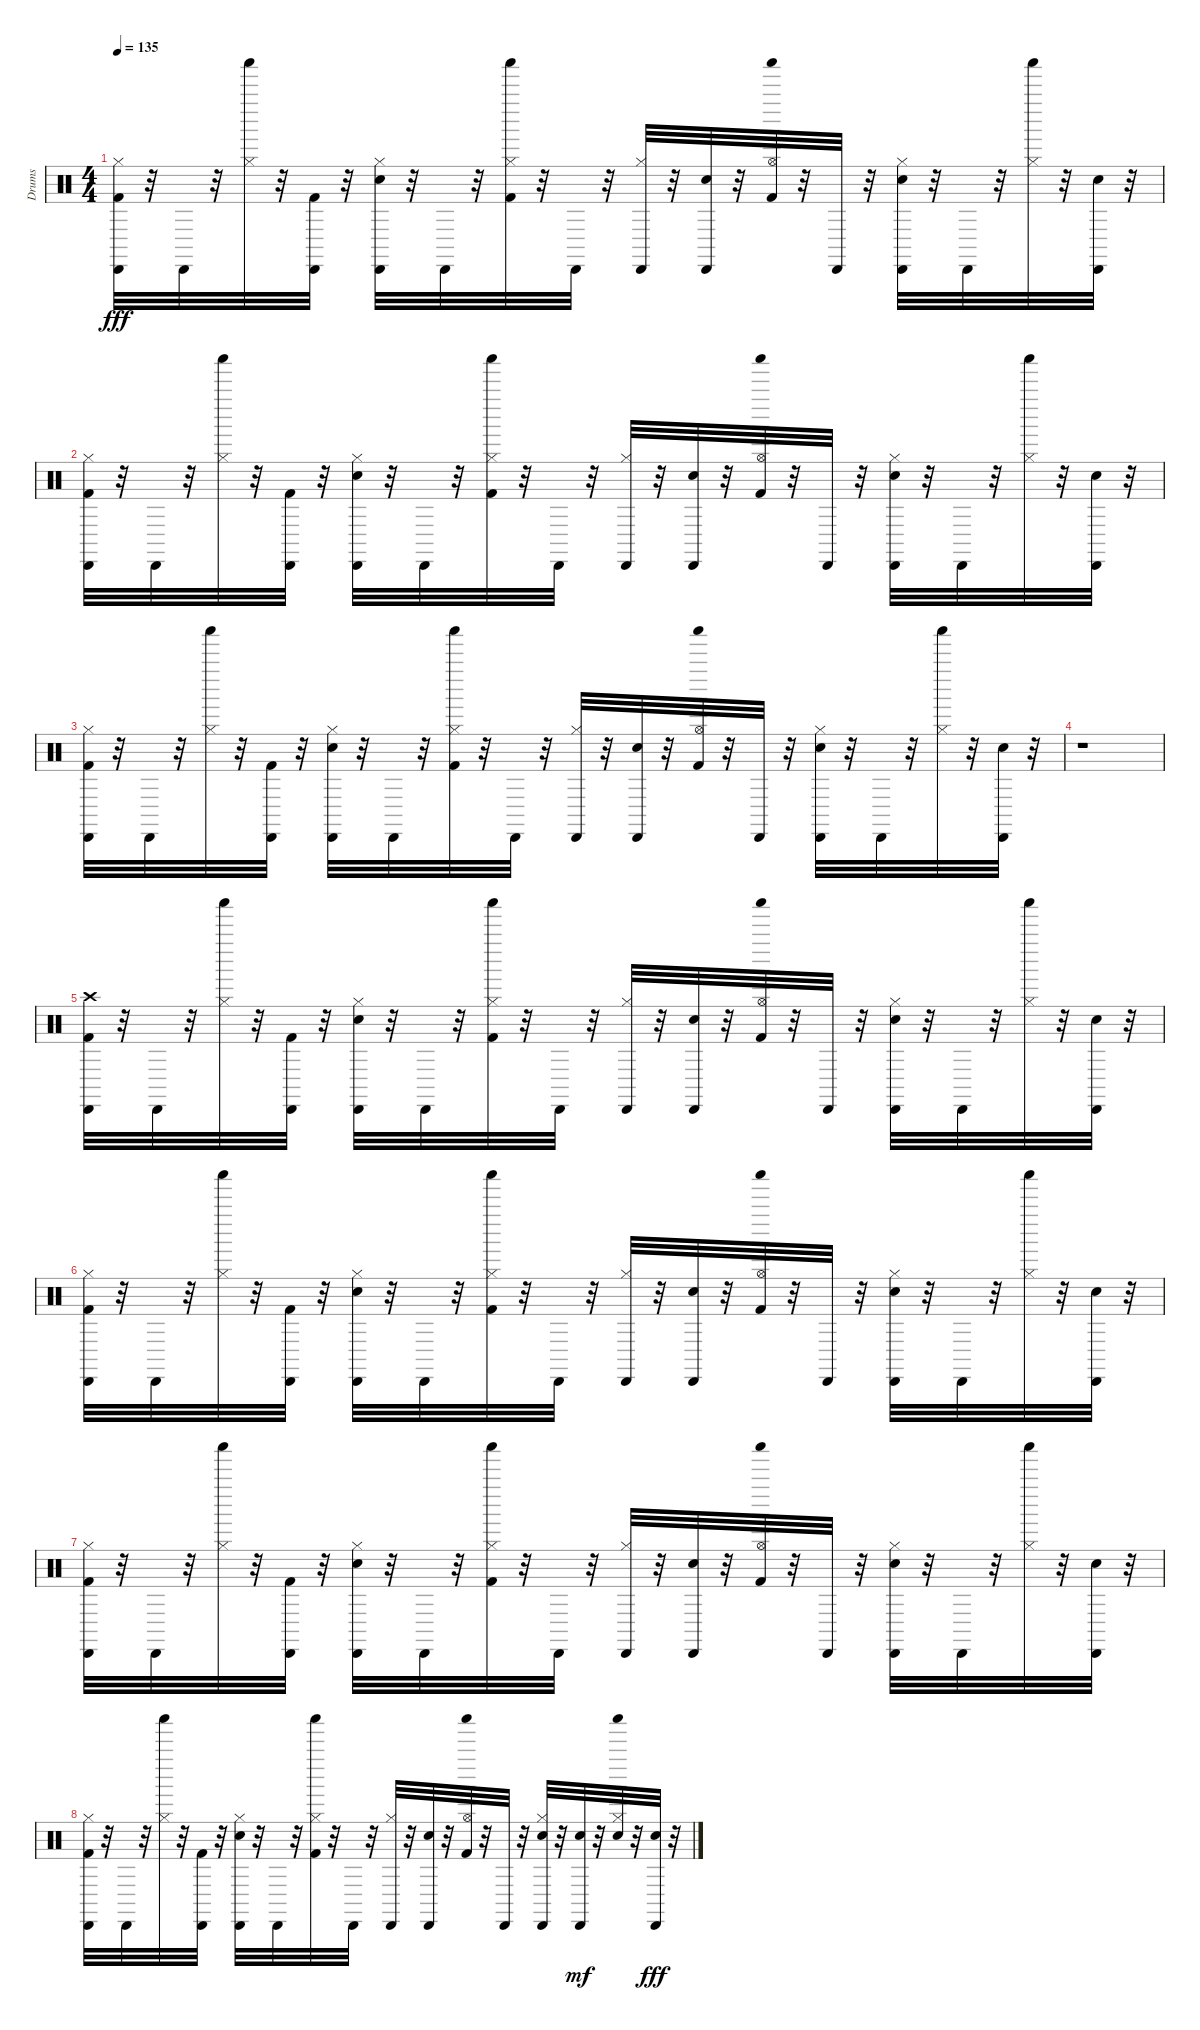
\track ("Drums" "Drums") {instrument percussion}
\staff {score}
\articulation defaults
\ts (4 4)
\tempo 135
\clef neutral
\ks c
("Hi-Hat (closed)" "Kick (hit) 2" "Cabasa (hit)").32{dy fff} r.32 "Cabasa (hit)".32 r.32 ("Shaker (hit)" "Hi-Hat (closed)").32 r.32 ("Kick (hit) 2" "Cabasa (hit)").32 r.32 ("Snare (hit) 2" "Hi-Hat (closed)" "Cabasa (hit)").32 r.32 "Cabasa (hit)".32 r.32 ("Kick (hit) 2" "Shaker (hit)" "Hi-Hat (closed)").32 r.32 "Cabasa (hit)".32 r.32 ("Hi-Hat (closed)" "Cabasa (hit)").32 r.32 ("Snare (hit) 2" "Cabasa (hit)").32 r.32 ("Kick (hit) 2" "Shaker (hit)" "Hi-Hat (open)").32 r.32 "Cabasa (hit)".32 r.32 ("Snare (hit) 2" "Hi-Hat (closed)" "Cabasa (hit)").32 r.32 "Cabasa (hit)".32 r.32 ("Shaker (hit)" "Hi-Hat (closed)").32 r.32 ("Snare (hit) 2" "Cabasa (hit)").32 r.32 |
("Hi-Hat (closed)" "Kick (hit) 2" "Cabasa (hit)").32 r.32 "Cabasa (hit)".32 r.32 ("Shaker (hit)" "Hi-Hat (closed)").32 r.32 ("Kick (hit) 2" "Cabasa (hit)").32 r.32 ("Snare (hit) 2" "Hi-Hat (closed)" "Cabasa (hit)").32 r.32 "Cabasa (hit)".32 r.32 ("Kick (hit) 2" "Shaker (hit)" "Hi-Hat (closed)").32 r.32 "Cabasa (hit)".32 r.32 ("Hi-Hat (closed)" "Cabasa (hit)").32 r.32 ("Snare (hit) 2" "Cabasa (hit)").32 r.32 ("Kick (hit) 2" "Shaker (hit)" "Hi-Hat (open)").32 r.32 "Cabasa (hit)".32 r.32 ("Snare (hit) 2" "Hi-Hat (closed)" "Cabasa (hit)").32 r.32 "Cabasa (hit)".32 r.32 ("Shaker (hit)" "Hi-Hat (closed)").32 r.32 ("Snare (hit) 2" "Cabasa (hit)").32 r.32 |
("Hi-Hat (closed)" "Kick (hit) 2" "Cabasa (hit)").32 r.32 "Cabasa (hit)".32 r.32 ("Shaker (hit)" "Hi-Hat (closed)").32 r.32 ("Kick (hit) 2" "Cabasa (hit)").32 r.32 ("Snare (hit) 2" "Hi-Hat (closed)" "Cabasa (hit)").32 r.32 "Cabasa (hit)".32 r.32 ("Kick (hit) 2" "Shaker (hit)" "Hi-Hat (closed)").32 r.32 "Cabasa (hit)".32 r.32 ("Hi-Hat (closed)" "Cabasa (hit)").32 r.32 ("Snare (hit) 2" "Cabasa (hit)").32 r.32 ("Kick (hit) 2" "Shaker (hit)" "Hi-Hat (open)").32 r.32 "Cabasa (hit)".32 r.32 ("Snare (hit) 2" "Hi-Hat (closed)" "Cabasa (hit)").32 r.32 "Cabasa (hit)".32 r.32 ("Shaker (hit)" "Hi-Hat (closed)").32 r.32 ("Snare (hit) 2" "Cabasa (hit)").32 r.32 |
r.1 |
("Crash high (hit)" "Kick (hit) 2" "Cabasa (hit)").32 r.32 "Cabasa (hit)".32 r.32 ("Shaker (hit)" "Hi-Hat (closed)").32 r.32 ("Kick (hit) 2" "Cabasa (hit)").32 r.32 ("Snare (hit) 2" "Hi-Hat (closed)" "Cabasa (hit)").32 r.32 "Cabasa (hit)".32 r.32 ("Kick (hit) 2" "Shaker (hit)" "Hi-Hat (closed)").32 r.32 "Cabasa (hit)".32 r.32 ("Hi-Hat (closed)" "Cabasa (hit)").32 r.32 ("Snare (hit) 2" "Cabasa (hit)").32 r.32 ("Kick (hit) 2" "Shaker (hit)" "Hi-Hat (open)").32 r.32 "Cabasa (hit)".32 r.32 ("Snare (hit) 2" "Hi-Hat (closed)" "Cabasa (hit)").32 r.32 "Cabasa (hit)".32 r.32 ("Shaker (hit)" "Hi-Hat (closed)").32 r.32 ("Snare (hit) 2" "Cabasa (hit)").32 r.32 |
("Hi-Hat (closed)" "Kick (hit) 2" "Cabasa (hit)").32 r.32 "Cabasa (hit)".32 r.32 ("Shaker (hit)" "Hi-Hat (closed)").32 r.32 ("Kick (hit) 2" "Cabasa (hit)").32 r.32 ("Snare (hit) 2" "Hi-Hat (closed)" "Cabasa (hit)").32 r.32 "Cabasa (hit)".32 r.32 ("Kick (hit) 2" "Shaker (hit)" "Hi-Hat (closed)").32 r.32 "Cabasa (hit)".32 r.32 ("Hi-Hat (closed)" "Cabasa (hit)").32 r.32 ("Snare (hit) 2" "Cabasa (hit)").32 r.32 ("Kick (hit) 2" "Shaker (hit)" "Hi-Hat (open)").32 r.32 "Cabasa (hit)".32 r.32 ("Snare (hit) 2" "Hi-Hat (closed)" "Cabasa (hit)").32 r.32 "Cabasa (hit)".32 r.32 ("Shaker (hit)" "Hi-Hat (closed)").32 r.32 ("Snare (hit) 2" "Cabasa (hit)").32 r.32 |
("Hi-Hat (closed)" "Kick (hit) 2" "Cabasa (hit)").32 r.32 "Cabasa (hit)".32 r.32 ("Shaker (hit)" "Hi-Hat (closed)").32 r.32 ("Kick (hit) 2" "Cabasa (hit)").32 r.32 ("Snare (hit) 2" "Hi-Hat (closed)" "Cabasa (hit)").32 r.32 "Cabasa (hit)".32 r.32 ("Kick (hit) 2" "Shaker (hit)" "Hi-Hat (closed)").32 r.32 "Cabasa (hit)".32 r.32 ("Hi-Hat (closed)" "Cabasa (hit)").32 r.32 ("Snare (hit) 2" "Cabasa (hit)").32 r.32 ("Kick (hit) 2" "Shaker (hit)" "Hi-Hat (open)").32 r.32 "Cabasa (hit)".32 r.32 ("Snare (hit) 2" "Hi-Hat (closed)" "Cabasa (hit)").32 r.32 "Cabasa (hit)".32 r.32 ("Shaker (hit)" "Hi-Hat (closed)").32 r.32 ("Snare (hit) 2" "Cabasa (hit)").32 r.32 |
("Hi-Hat (closed)" "Kick (hit) 2" "Cabasa (hit)").32 r.32 "Cabasa (hit)".32 r.32 ("Shaker (hit)" "Hi-Hat (closed)").32 r.32 ("Kick (hit) 2" "Cabasa (hit)").32 r.32 ("Snare (hit) 2" "Hi-Hat (closed)" "Cabasa (hit)").32 r.32 "Cabasa (hit)".32 r.32 ("Kick (hit) 2" "Shaker (hit)" "Hi-Hat (closed)").32 r.32 "Cabasa (hit)".32 r.32 ("Hi-Hat (closed)" "Cabasa (hit)").32 r.32 ("Snare (hit) 2" "Cabasa (hit)").32 r.32 ("Kick (hit) 2" "Shaker (hit)" "Hi-Hat (open)").32 r.32 "Cabasa (hit)".32 r.32 ("Snare (hit) 2" "Hi-Hat (closed)" "Cabasa (hit)").32 r.32 ("Cabasa (hit)" "Snare (hit) 2").32{dy mf} r.32 ("Shaker (hit)" "Hi-Hat (closed)" "Snare (hit) 2").32 r.32 ("Snare (hit) 2" "Cabasa (hit)").32{dy fff} r.32
